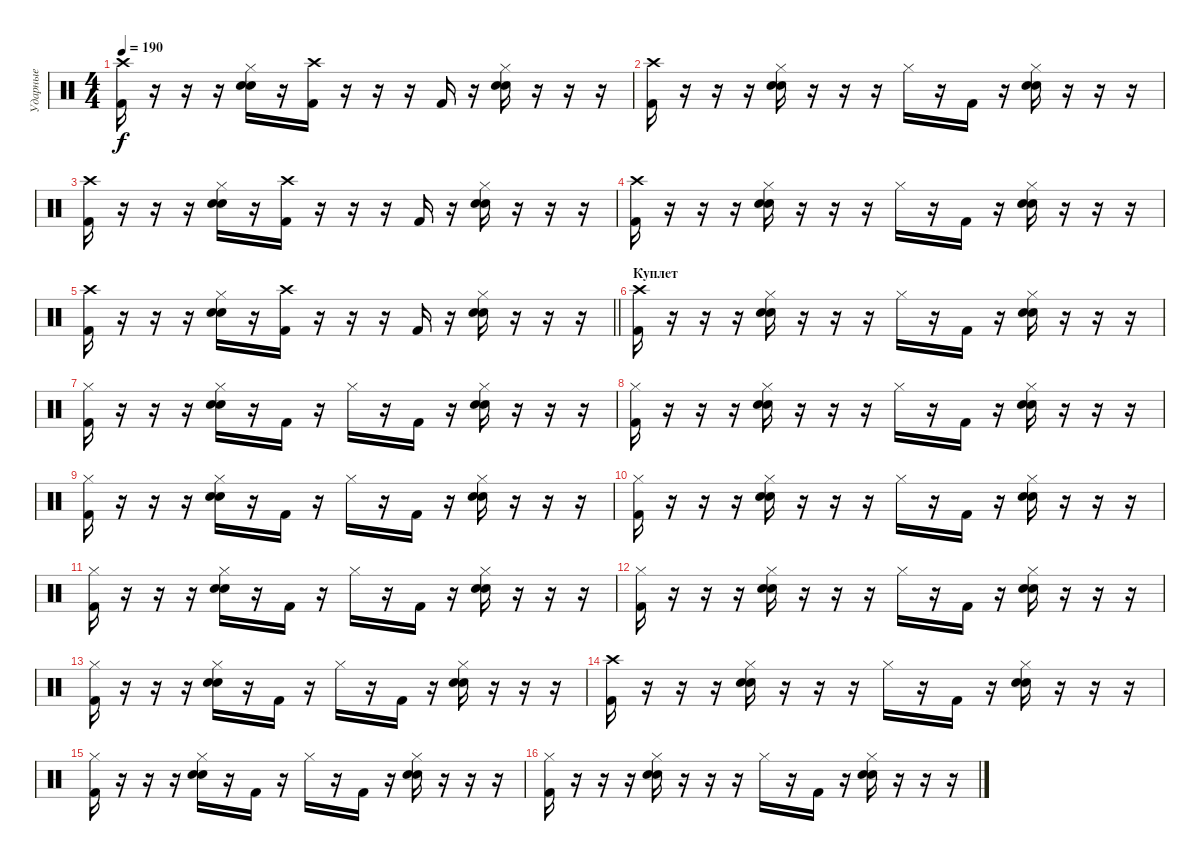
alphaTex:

\track ("Ударные" "Ударные") {instrument percussion}
\staff {score}
\articulation defaults
\ts (4 4)
\tempo 190
\clef neutral
\ks c
("Kick (hit) 2" "Crash high (hit)").16{dy f} r.16 r.16 r.16 ("Snare (hit) 2" "Electric Snare (hit)" "Hi-Hat (closed)").16 r.16 ("Kick (hit) 2" "Crash high (hit)").16 r.16 r.16 r.16 "Kick (hit) 2".16 r.16 ("Snare (hit) 2" "Electric Snare (hit)" "Hi-Hat (closed)").16 r.16 r.16 r.16 |
("Kick (hit) 2" "Crash high (hit)").16 r.16 r.16 r.16 ("Snare (hit) 2" "Electric Snare (hit)" "Hi-Hat (closed)").16 r.16 r.16 r.16 "Hi-Hat (closed)".16 r.16 "Kick (hit) 2".16 r.16 ("Snare (hit) 2" "Electric Snare (hit)" "Hi-Hat (closed)").16 r.16 r.16 r.16 |
("Kick (hit) 2" "Crash high (hit)").16 r.16 r.16 r.16 ("Snare (hit) 2" "Electric Snare (hit)" "Hi-Hat (closed)").16 r.16 ("Kick (hit) 2" "Crash high (hit)").16 r.16 r.16 r.16 "Kick (hit) 2".16 r.16 ("Snare (hit) 2" "Electric Snare (hit)" "Hi-Hat (closed)").16 r.16 r.16 r.16 |
("Kick (hit) 2" "Crash high (hit)").16 r.16 r.16 r.16 ("Snare (hit) 2" "Electric Snare (hit)" "Hi-Hat (closed)").16 r.16 r.16 r.16 "Hi-Hat (closed)".16 r.16 "Kick (hit) 2".16 r.16 ("Snare (hit) 2" "Electric Snare (hit)" "Hi-Hat (closed)").16 r.16 r.16 r.16 |
\barLineRight lightlight
("Kick (hit) 2" "Crash high (hit)").16 r.16 r.16 r.16 ("Snare (hit) 2" "Electric Snare (hit)" "Hi-Hat (closed)").16 r.16 ("Kick (hit) 2" "Crash high (hit)").16 r.16 r.16 r.16 "Kick (hit) 2".16 r.16 ("Snare (hit) 2" "Electric Snare (hit)" "Hi-Hat (closed)").16 r.16 r.16 r.16 |
\section ("" "Куплет")
("Kick (hit) 2" "Crash high (hit)").16 r.16 r.16 r.16 ("Snare (hit) 2" "Electric Snare (hit)" "Hi-Hat (closed)").16 r.16 r.16 r.16 "Hi-Hat (closed)".16 r.16 "Kick (hit) 2".16 r.16 ("Snare (hit) 2" "Electric Snare (hit)" "Hi-Hat (closed)").16 r.16 r.16 r.16 |
("Kick (hit) 2" "Hi-Hat (closed)").16 r.16 r.16 r.16 ("Snare (hit) 2" "Electric Snare (hit)" "Hi-Hat (closed)").16 r.16 "Kick (hit) 2".16 r.16 "Hi-Hat (closed)".16 r.16 "Kick (hit) 2".16 r.16 ("Snare (hit) 2" "Electric Snare (hit)" "Hi-Hat (closed)").16 r.16 r.16 r.16 |
("Kick (hit) 2" "Hi-Hat (closed)").16 r.16 r.16 r.16 ("Snare (hit) 2" "Electric Snare (hit)" "Hi-Hat (closed)").16 r.16 r.16 r.16 "Hi-Hat (closed)".16 r.16 "Kick (hit) 2".16 r.16 ("Snare (hit) 2" "Electric Snare (hit)" "Hi-Hat (closed)").16 r.16 r.16 r.16 |
("Kick (hit) 2" "Hi-Hat (closed)").16 r.16 r.16 r.16 ("Snare (hit) 2" "Electric Snare (hit)" "Hi-Hat (closed)").16 r.16 "Kick (hit) 2".16 r.16 "Hi-Hat (closed)".16 r.16 "Kick (hit) 2".16 r.16 ("Snare (hit) 2" "Electric Snare (hit)" "Hi-Hat (closed)").16 r.16 r.16 r.16 |
("Kick (hit) 2" "Hi-Hat (closed)").16 r.16 r.16 r.16 ("Snare (hit) 2" "Electric Snare (hit)" "Hi-Hat (closed)").16 r.16 r.16 r.16 "Hi-Hat (closed)".16 r.16 "Kick (hit) 2".16 r.16 ("Snare (hit) 2" "Electric Snare (hit)" "Hi-Hat (closed)").16 r.16 r.16 r.16 |
("Kick (hit) 2" "Hi-Hat (closed)").16 r.16 r.16 r.16 ("Snare (hit) 2" "Electric Snare (hit)" "Hi-Hat (closed)").16 r.16 "Kick (hit) 2".16 r.16 "Hi-Hat (closed)".16 r.16 "Kick (hit) 2".16 r.16 ("Snare (hit) 2" "Electric Snare (hit)" "Hi-Hat (closed)").16 r.16 r.16 r.16 |
("Kick (hit) 2" "Hi-Hat (closed)").16 r.16 r.16 r.16 ("Snare (hit) 2" "Electric Snare (hit)" "Hi-Hat (closed)").16 r.16 r.16 r.16 "Hi-Hat (closed)".16 r.16 "Kick (hit) 2".16 r.16 ("Snare (hit) 2" "Electric Snare (hit)" "Hi-Hat (closed)").16 r.16 r.16 r.16 |
("Kick (hit) 2" "Hi-Hat (closed)").16 r.16 r.16 r.16 ("Snare (hit) 2" "Electric Snare (hit)" "Hi-Hat (closed)").16 r.16 "Kick (hit) 2".16 r.16 "Hi-Hat (closed)".16 r.16 "Kick (hit) 2".16 r.16 ("Snare (hit) 2" "Electric Snare (hit)" "Hi-Hat (closed)").16 r.16 r.16 r.16 |
("Kick (hit) 2" "Crash high (hit)").16 r.16 r.16 r.16 ("Snare (hit) 2" "Electric Snare (hit)" "Hi-Hat (closed)").16 r.16 r.16 r.16 "Hi-Hat (closed)".16 r.16 "Kick (hit) 2".16 r.16 ("Snare (hit) 2" "Electric Snare (hit)" "Hi-Hat (closed)").16 r.16 r.16 r.16 |
("Kick (hit) 2" "Hi-Hat (closed)").16 r.16 r.16 r.16 ("Snare (hit) 2" "Electric Snare (hit)" "Hi-Hat (closed)").16 r.16 "Kick (hit) 2".16 r.16 "Hi-Hat (closed)".16 r.16 "Kick (hit) 2".16 r.16 ("Snare (hit) 2" "Electric Snare (hit)" "Hi-Hat (closed)").16 r.16 r.16 r.16 |
("Kick (hit) 2" "Hi-Hat (closed)").16 r.16 r.16 r.16 ("Snare (hit) 2" "Electric Snare (hit)" "Hi-Hat (closed)").16 r.16 r.16 r.16 "Hi-Hat (closed)".16 r.16 "Kick (hit) 2".16 r.16 ("Snare (hit) 2" "Electric Snare (hit)" "Hi-Hat (closed)").16 r.16 r.16 r.16
